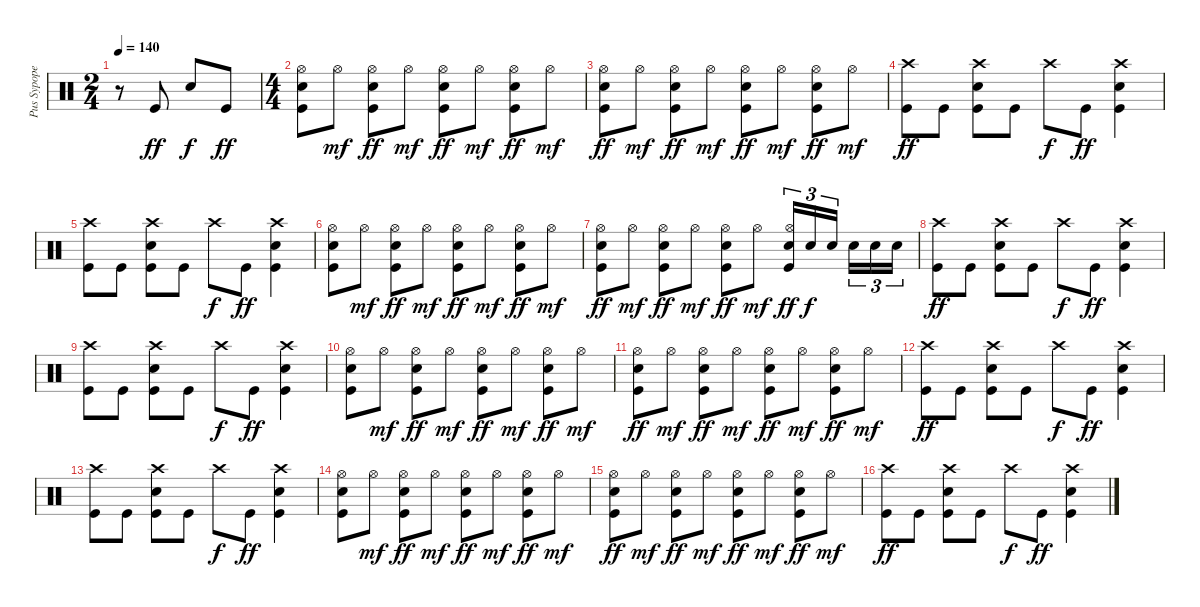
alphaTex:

\track ("Pus Sypope" "Pus Sypope") {instrument percussion}
\staff {score}
\articulation defaults
\ts (2 4)
\tempo 140
\clef neutral
\ks c
r.8{dy ff} "Kick (hit)".8 "Snare (hit) 2".8{dy f} "Kick (hit)".8{dy ff} |
\ts (4 4)
("Hi-Hat (open)" "Electric Snare (hit)" "Kick (hit)").8 "Hi-Hat (open)".8{dy mf} ("Hi-Hat (open)" "Electric Snare (hit)" "Kick (hit)").8{dy ff} "Hi-Hat (open)".8{dy mf} ("Hi-Hat (open)" "Electric Snare (hit)" "Kick (hit)").8{dy ff} "Hi-Hat (open)".8{dy mf} ("Hi-Hat (open)" "Electric Snare (hit)" "Kick (hit)").8{dy ff} "Hi-Hat (open)".8{dy mf} |
("Hi-Hat (open)" "Electric Snare (hit)" "Kick (hit)").8{dy ff} "Hi-Hat (open)".8{dy mf} ("Hi-Hat (open)" "Electric Snare (hit)" "Kick (hit)").8{dy ff} "Hi-Hat (open)".8{dy mf} ("Hi-Hat (open)" "Electric Snare (hit)" "Kick (hit)").8{dy ff} "Hi-Hat (open)".8{dy mf} ("Hi-Hat (open)" "Electric Snare (hit)" "Kick (hit)").8{dy ff} "Hi-Hat (open)".8{dy mf} |
("Crash high (hit)" "Kick (hit)").8{dy ff} "Kick (hit)".8 ("Crash high (hit)" "Electric Snare (hit)" "Kick (hit)").8 "Kick (hit)".8 "Crash high (hit)".8{dy f} "Kick (hit)".8{dy ff} ("Crash high (hit)" "Electric Snare (hit)" "Kick (hit)").4 |
("Crash high (hit)" "Kick (hit)").8 "Kick (hit)".8 ("Crash high (hit)" "Electric Snare (hit)" "Kick (hit)").8 "Kick (hit)".8 "Crash high (hit)".8{dy f} "Kick (hit)".8{dy ff} ("Crash high (hit)" "Electric Snare (hit)" "Kick (hit)").4 |
("Hi-Hat (open)" "Electric Snare (hit)" "Kick (hit)").8 "Hi-Hat (open)".8{dy mf} ("Hi-Hat (open)" "Electric Snare (hit)" "Kick (hit)").8{dy ff} "Hi-Hat (open)".8{dy mf} ("Hi-Hat (open)" "Electric Snare (hit)" "Kick (hit)").8{dy ff} "Hi-Hat (open)".8{dy mf} ("Hi-Hat (open)" "Electric Snare (hit)" "Kick (hit)").8{dy ff} "Hi-Hat (open)".8{dy mf} |
("Hi-Hat (open)" "Electric Snare (hit)" "Kick (hit)").8{dy ff} "Hi-Hat (open)".8{dy mf} ("Hi-Hat (open)" "Electric Snare (hit)" "Kick (hit)").8{dy ff} "Hi-Hat (open)".8{dy mf} ("Hi-Hat (open)" "Electric Snare (hit)" "Kick (hit)").8{dy ff} "Hi-Hat (open)".8{dy mf} ("Hi-Hat (open)" "Electric Snare (hit)" "Kick (hit)").16{tu (3 2) dy ff} "Electric Snare (hit)".16{tu (3 2) dy f} "Electric Snare (hit)".16{tu (3 2)} "Electric Snare (hit)".16{tu (3 2)} "Electric Snare (hit)".16{tu (3 2)} "Electric Snare (hit)".16{tu (3 2)} |
("Crash high (hit)" "Kick (hit)").8{dy ff} "Kick (hit)".8 ("Crash high (hit)" "Electric Snare (hit)" "Kick (hit)").8 "Kick (hit)".8 "Crash high (hit)".8{dy f} "Kick (hit)".8{dy ff} ("Crash high (hit)" "Electric Snare (hit)" "Kick (hit)").4 |
("Crash high (hit)" "Kick (hit)").8 "Kick (hit)".8 ("Crash high (hit)" "Electric Snare (hit)" "Kick (hit)").8 "Kick (hit)".8 "Crash high (hit)".8{dy f} "Kick (hit)".8{dy ff} ("Crash high (hit)" "Electric Snare (hit)" "Kick (hit)").4 |
("Hi-Hat (open)" "Electric Snare (hit)" "Kick (hit)").8 "Hi-Hat (open)".8{dy mf} ("Hi-Hat (open)" "Electric Snare (hit)" "Kick (hit)").8{dy ff} "Hi-Hat (open)".8{dy mf} ("Hi-Hat (open)" "Electric Snare (hit)" "Kick (hit)").8{dy ff} "Hi-Hat (open)".8{dy mf} ("Hi-Hat (open)" "Electric Snare (hit)" "Kick (hit)").8{dy ff} "Hi-Hat (open)".8{dy mf} |
("Hi-Hat (open)" "Electric Snare (hit)" "Kick (hit)").8{dy ff} "Hi-Hat (open)".8{dy mf} ("Hi-Hat (open)" "Electric Snare (hit)" "Kick (hit)").8{dy ff} "Hi-Hat (open)".8{dy mf} ("Hi-Hat (open)" "Electric Snare (hit)" "Kick (hit)").8{dy ff} "Hi-Hat (open)".8{dy mf} ("Hi-Hat (open)" "Electric Snare (hit)" "Kick (hit)").8{dy ff} "Hi-Hat (open)".8{dy mf} |
("Crash high (hit)" "Kick (hit)").8{dy ff} "Kick (hit)".8 ("Crash high (hit)" "Electric Snare (hit)" "Kick (hit)").8 "Kick (hit)".8 "Crash high (hit)".8{dy f} "Kick (hit)".8{dy ff} ("Crash high (hit)" "Electric Snare (hit)" "Kick (hit)").4 |
("Crash high (hit)" "Kick (hit)").8 "Kick (hit)".8 ("Crash high (hit)" "Electric Snare (hit)" "Kick (hit)").8 "Kick (hit)".8 "Crash high (hit)".8{dy f} "Kick (hit)".8{dy ff} ("Crash high (hit)" "Electric Snare (hit)" "Kick (hit)").4 |
("Hi-Hat (open)" "Electric Snare (hit)" "Kick (hit)").8 "Hi-Hat (open)".8{dy mf} ("Hi-Hat (open)" "Electric Snare (hit)" "Kick (hit)").8{dy ff} "Hi-Hat (open)".8{dy mf} ("Hi-Hat (open)" "Electric Snare (hit)" "Kick (hit)").8{dy ff} "Hi-Hat (open)".8{dy mf} ("Hi-Hat (open)" "Electric Snare (hit)" "Kick (hit)").8{dy ff} "Hi-Hat (open)".8{dy mf} |
("Hi-Hat (open)" "Electric Snare (hit)" "Kick (hit)").8{dy ff} "Hi-Hat (open)".8{dy mf} ("Hi-Hat (open)" "Electric Snare (hit)" "Kick (hit)").8{dy ff} "Hi-Hat (open)".8{dy mf} ("Hi-Hat (open)" "Electric Snare (hit)" "Kick (hit)").8{dy ff} "Hi-Hat (open)".8{dy mf} ("Hi-Hat (open)" "Electric Snare (hit)" "Kick (hit)").8{dy ff} "Hi-Hat (open)".8{dy mf} |
("Crash high (hit)" "Kick (hit)").8{dy ff} "Kick (hit)".8 ("Crash high (hit)" "Electric Snare (hit)" "Kick (hit)").8 "Kick (hit)".8 "Crash high (hit)".8{dy f} "Kick (hit)".8{dy ff} ("Crash high (hit)" "Electric Snare (hit)" "Kick (hit)").4
